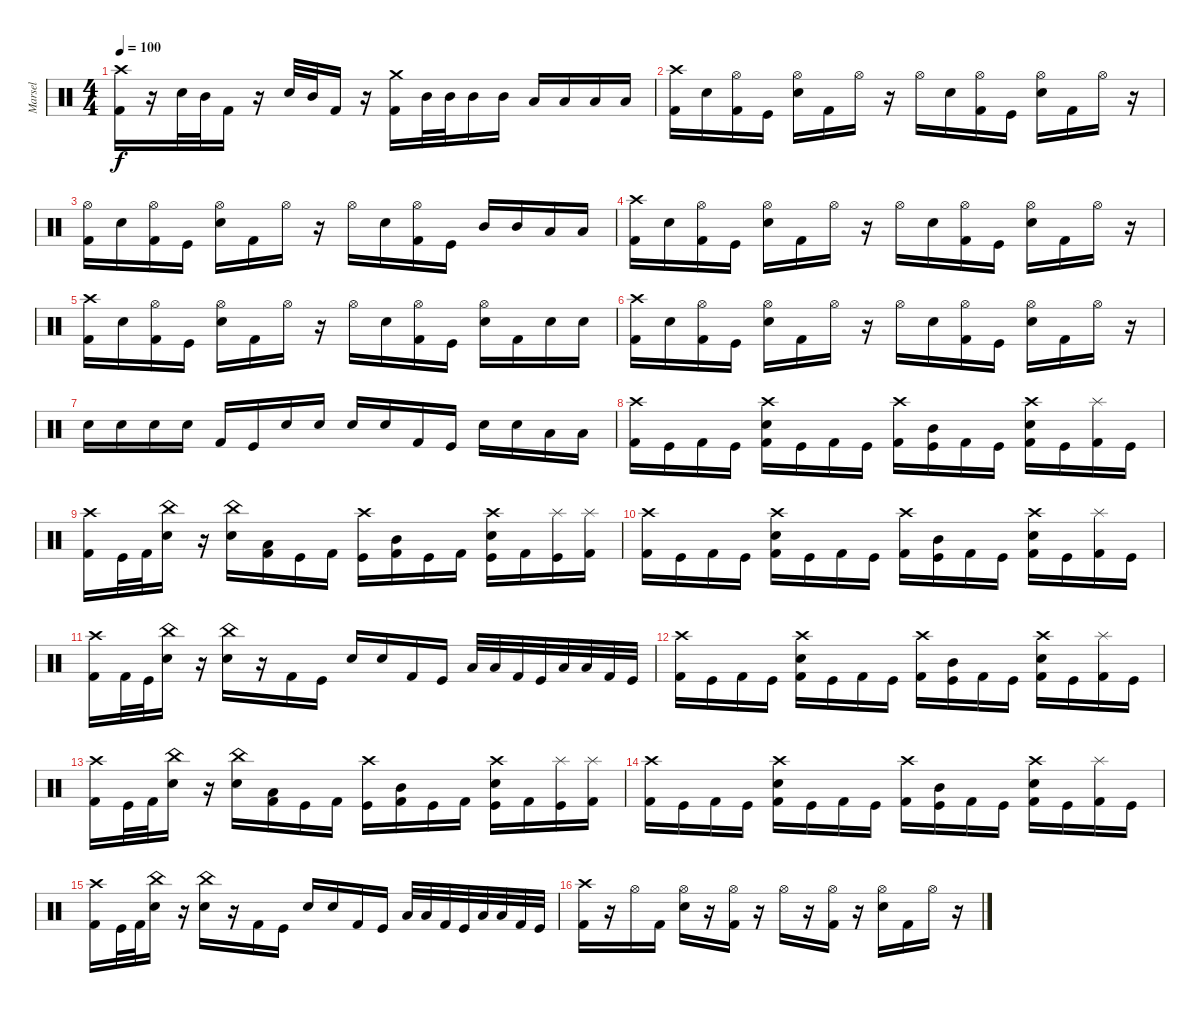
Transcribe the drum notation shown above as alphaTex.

\track ("Marsel" "Marsel") {instrument percussion}
\staff {score}
\articulation defaults
\ts (4 4)
\tempo 100
\clef neutral
\ks c
("Crash high (hit)" "Kick (hit) 2").16{dy f} r.16 "Snare (hit) 2".32 "Mid Tom (hit)".32 "Kick (hit) 2".16 r.16 "Snare (hit) 2".32 "Mid Tom (hit)".32 "Kick (hit) 2".16 r.16 ("Crash medium (hit)" "Kick (hit) 2").16 "Mid Tom (hit)".32 "Mid Tom (hit)".32 "Mid Tom (hit)".16 "Mid Tom (hit)".16 "Low Tom (hit)".16 "Low Tom (hit)".16 "Low Floor Tom (hit)".16 "Low Floor Tom (hit)".16 |
("Crash high (hit)" "Kick (hit) 2").16 "Snare (hit) 2".16 ("Hi-Hat (open)" "Kick (hit) 2").16 "Kick (hit)".16 ("Hi-Hat (open)" "Snare (hit) 2").16 "Kick (hit) 2".16 "Hi-Hat (open)".16 r.16 "Hi-Hat (open)".16 "Snare (hit) 2".16 ("Hi-Hat (open)" "Kick (hit) 2").16 "Kick (hit)".16 ("Hi-Hat (open)" "Snare (hit) 2").16 "Kick (hit) 2".16 "Hi-Hat (open)".16 r.16 |
("Hi-Hat (open)" "Kick (hit) 2").16 "Snare (hit) 2".16 ("Hi-Hat (open)" "Kick (hit) 2").16 "Kick (hit)".16 ("Hi-Hat (open)" "Snare (hit) 2").16 "Kick (hit) 2".16 "Hi-Hat (open)".16 r.16 "Hi-Hat (open)".16 "Snare (hit) 2".16 ("Hi-Hat (open)" "Kick (hit) 2").16 "Kick (hit)".16 "Mid Tom (hit)".16 "Mid Tom (hit)".16 "Low Tom (hit)".16 "Low Tom (hit)".16 |
("Crash high (hit)" "Kick (hit) 2").16 "Snare (hit) 2".16 ("Hi-Hat (open)" "Kick (hit) 2").16 "Kick (hit)".16 ("Hi-Hat (open)" "Snare (hit) 2").16 "Kick (hit) 2".16 "Hi-Hat (open)".16 r.16 "Hi-Hat (open)".16 "Snare (hit) 2".16 ("Hi-Hat (open)" "Kick (hit) 2").16 "Kick (hit)".16 ("Hi-Hat (open)" "Snare (hit) 2").16 "Kick (hit) 2".16 "Hi-Hat (open)".16 r.16 |
("Crash high (hit)" "Kick (hit) 2").16 "Snare (hit) 2".16 ("Hi-Hat (open)" "Kick (hit) 2").16 "Kick (hit)".16 ("Hi-Hat (open)" "Snare (hit) 2").16 "Kick (hit) 2".16 "Hi-Hat (open)".16 r.16 "Hi-Hat (open)".16 "Snare (hit) 2".16 ("Hi-Hat (open)" "Kick (hit) 2").16 "Kick (hit)".16 ("Hi-Hat (open)" "Snare (hit) 2").16 "Kick (hit) 2".16 "Snare (hit) 2".16 "Snare (hit) 2".16 |
("Crash high (hit)" "Kick (hit) 2").16 "Snare (hit) 2".16 ("Hi-Hat (open)" "Kick (hit) 2").16 "Kick (hit)".16 ("Hi-Hat (open)" "Snare (hit) 2").16 "Kick (hit) 2".16 "Hi-Hat (open)".16 r.16 "Hi-Hat (open)".16 "Snare (hit) 2".16 ("Hi-Hat (open)" "Kick (hit) 2").16 "Kick (hit)".16 ("Hi-Hat (open)" "Snare (hit) 2").16 "Kick (hit) 2".16 "Hi-Hat (open)".16 r.16 |
"Snare (hit) 2".16 "Snare (hit) 2".16 "Snare (hit) 2".16 "Snare (hit) 2".16 "Kick (hit) 2".16 "Kick (hit)".16 "Snare (hit) 2".16 "Snare (hit) 2".16 "Snare (hit) 2".16 "Snare (hit) 2".16 "Kick (hit) 2".16 "Kick (hit)".16 "Snare (hit) 2".16 "Snare (hit) 2".16 "Low Tom (hit)".16 "Low Tom (hit)".16 |
("Crash high (hit)" "Kick (hit) 2").16 "Kick (hit)".16 "Kick (hit) 2".16 "Kick (hit)".16 ("Crash high (hit)" "Snare (hit) 2" "Kick (hit) 2").16 "Kick (hit)".16 "Kick (hit) 2".16 "Kick (hit)".16 ("Crash high (hit)" "Kick (hit) 2").16 ("Mid Tom (hit)" "Kick (hit)").16 "Kick (hit) 2".16 "Kick (hit)".16 ("Crash high (hit)" "Snare (hit) 2" "Kick (hit) 2").16 "Kick (hit)".16 ("Splash (hit)" "Kick (hit) 2").16 "Kick (hit)".16 |
("Crash high (hit)" "Kick (hit) 2").16 "Kick (hit)".32 "Kick (hit) 2".32 ("China (hit)" "Snare (hit) 2").16 r.16 ("China (hit)" "Snare (hit) 2").16 ("Low Tom (hit)" "Kick (hit) 2").16 "Kick (hit)".16 "Kick (hit) 2".16 ("Crash high (hit)" "Kick (hit)").16 ("Mid Tom (hit)" "Kick (hit) 2").16 "Kick (hit)".16 "Kick (hit) 2".16 ("Crash high (hit)" "Snare (hit) 2" "Kick (hit)").16 "Kick (hit) 2".16 ("Splash (hit)" "Kick (hit)").16 ("Splash (hit)" "Kick (hit) 2").16 |
("Crash high (hit)" "Kick (hit) 2").16 "Kick (hit)".16 "Kick (hit) 2".16 "Kick (hit)".16 ("Crash high (hit)" "Snare (hit) 2" "Kick (hit) 2").16 "Kick (hit)".16 "Kick (hit) 2".16 "Kick (hit)".16 ("Crash high (hit)" "Kick (hit) 2").16 ("Mid Tom (hit)" "Kick (hit)").16 "Kick (hit) 2".16 "Kick (hit)".16 ("Crash high (hit)" "Snare (hit) 2" "Kick (hit) 2").16 "Kick (hit)".16 ("Splash (hit)" "Kick (hit) 2").16 "Kick (hit)".16 |
("Crash high (hit)" "Kick (hit) 2").16 "Kick (hit) 2".32 "Kick (hit)".32 ("China (hit)" "Snare (hit) 2").16 r.16 ("China (hit)" "Snare (hit) 2").16 r.16 "Kick (hit) 2".16 "Kick (hit)".16 "Snare (hit) 2".16 "Snare (hit) 2".16 "Kick (hit) 2".16 "Kick (hit)".16 "Low Floor Tom (hit)".32 "Low Tom (hit)".32 "Kick (hit) 2".32 "Kick (hit)".32 "Low Floor Tom (hit)".32 "Low Tom (hit)".32 "Kick (hit) 2".32 "Kick (hit)".32 |
("Crash high (hit)" "Kick (hit) 2").16 "Kick (hit)".16 "Kick (hit) 2".16 "Kick (hit)".16 ("Crash high (hit)" "Snare (hit) 2" "Kick (hit) 2").16 "Kick (hit)".16 "Kick (hit) 2".16 "Kick (hit)".16 ("Crash high (hit)" "Kick (hit) 2").16 ("Mid Tom (hit)" "Kick (hit)").16 "Kick (hit) 2".16 "Kick (hit)".16 ("Crash high (hit)" "Snare (hit) 2" "Kick (hit) 2").16 "Kick (hit)".16 ("Splash (hit)" "Kick (hit) 2").16 "Kick (hit)".16 |
("Crash high (hit)" "Kick (hit) 2").16 "Kick (hit)".32 "Kick (hit) 2".32 ("China (hit)" "Snare (hit) 2").16 r.16 ("China (hit)" "Snare (hit) 2").16 ("Low Tom (hit)" "Kick (hit) 2").16 "Kick (hit)".16 "Kick (hit) 2".16 ("Crash high (hit)" "Kick (hit)").16 ("Mid Tom (hit)" "Kick (hit) 2").16 "Kick (hit)".16 "Kick (hit) 2".16 ("Crash high (hit)" "Snare (hit) 2" "Kick (hit)").16 "Kick (hit) 2".16 ("Splash (hit)" "Kick (hit)").16 ("Splash (hit)" "Kick (hit) 2").16 |
("Crash high (hit)" "Kick (hit) 2").16 "Kick (hit)".16 "Kick (hit) 2".16 "Kick (hit)".16 ("Crash high (hit)" "Snare (hit) 2" "Kick (hit) 2").16 "Kick (hit)".16 "Kick (hit) 2".16 "Kick (hit)".16 ("Crash high (hit)" "Kick (hit) 2").16 ("Mid Tom (hit)" "Kick (hit)").16 "Kick (hit) 2".16 "Kick (hit)".16 ("Crash high (hit)" "Snare (hit) 2" "Kick (hit) 2").16 "Kick (hit)".16 ("Splash (hit)" "Kick (hit) 2").16 "Kick (hit)".16 |
("Crash high (hit)" "Kick (hit) 2").16 "Kick (hit)".32 "Kick (hit) 2".32 ("China (hit)" "Snare (hit) 2").16 r.16 ("China (hit)" "Snare (hit) 2").16 r.16 "Kick (hit) 2".16 "Kick (hit)".16 "Snare (hit) 2".16 "Snare (hit) 2".16 "Kick (hit) 2".16 "Kick (hit)".16 "Low Floor Tom (hit)".32 "Low Tom (hit)".32 "Kick (hit) 2".32 "Kick (hit)".32 "Low Floor Tom (hit)".32 "Low Tom (hit)".32 "Kick (hit) 2".32 "Kick (hit)".32 |
("Crash high (hit)" "Kick (hit) 2").16 r.16 "Hi-Hat (open)".16 "Kick (hit) 2".16 ("Hi-Hat (open)" "Snare (hit) 2").16 r.16 ("Hi-Hat (open)" "Kick (hit) 2").16 r.16 "Hi-Hat (open)".16 r.16 ("Hi-Hat (open)" "Kick (hit) 2").16 r.16 ("Hi-Hat (open)" "Snare (hit) 2").16 "Kick (hit) 2".16 "Hi-Hat (open)".16 r.16
